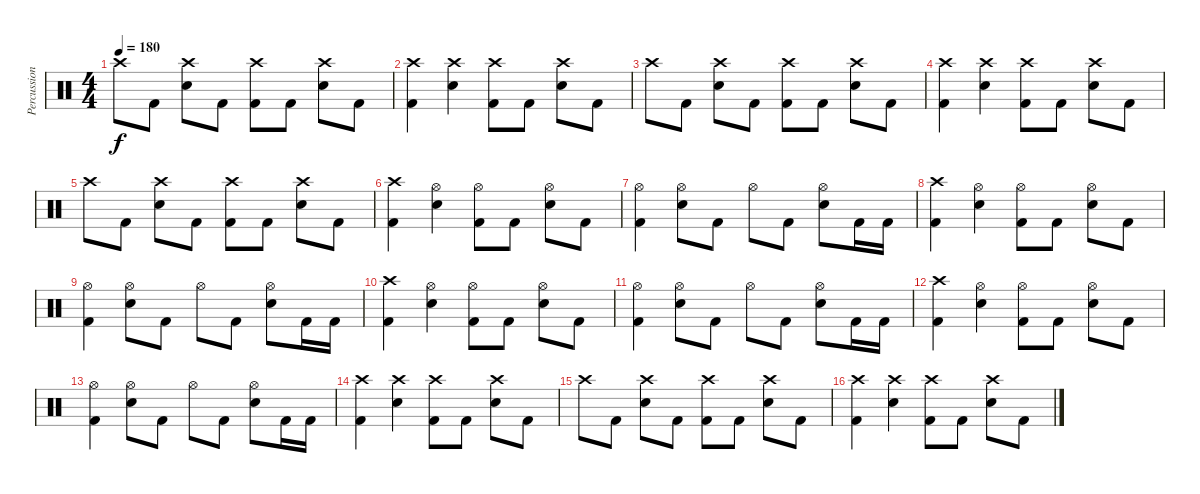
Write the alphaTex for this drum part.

\track ("Percussion" "Percussion") {instrument percussion}
\staff {score}
\articulation defaults
\ts (4 4)
\tempo 180
\clef neutral
\ks c "Crash high (hit)".8{dy f} "Kick (hit) 2".8
("Crash high (hit)" "Snare (hit) 2").8 "Kick (hit) 2".8 ("Crash high (hit)" "Kick (hit) 2").8 "Kick (hit) 2".8 ("Crash high (hit)" "Snare (hit) 2").8 "Kick (hit) 2".8 |
("Crash high (hit)" "Kick (hit) 2").4 ("Crash high (hit)" "Snare (hit) 2").4 ("Crash high (hit)" "Kick (hit) 2").8 "Kick (hit) 2".8 ("Crash high (hit)" "Snare (hit) 2").8 "Kick (hit) 2".8 |
"Crash high (hit)".8 "Kick (hit) 2".8 ("Crash high (hit)" "Snare (hit) 2").8 "Kick (hit) 2".8 ("Crash high (hit)" "Kick (hit) 2").8 "Kick (hit) 2".8 ("Crash high (hit)" "Snare (hit) 2").8 "Kick (hit) 2".8 |
("Crash high (hit)" "Kick (hit) 2").4 ("Crash high (hit)" "Snare (hit) 2").4 ("Crash high (hit)" "Kick (hit) 2").8 "Kick (hit) 2".8 ("Crash high (hit)" "Snare (hit) 2").8 "Kick (hit) 2".8 |
"Crash high (hit)".8 "Kick (hit) 2".8 ("Crash high (hit)" "Snare (hit) 2").8 "Kick (hit) 2".8 ("Crash high (hit)" "Kick (hit) 2").8 "Kick (hit) 2".8 ("Crash high (hit)" "Snare (hit) 2").8 "Kick (hit) 2".8 |
("Crash high (hit)" "Kick (hit) 2").4 ("Hi-Hat (open)" "Snare (hit) 2").4 ("Hi-Hat (open)" "Kick (hit) 2").8 "Kick (hit) 2".8 ("Hi-Hat (open)" "Snare (hit) 2").8 "Kick (hit) 2".8 |
("Hi-Hat (open)" "Kick (hit) 2").4 ("Hi-Hat (open)" "Snare (hit) 2").8 "Kick (hit) 2".8 "Hi-Hat (open)".8 "Kick (hit) 2".8 ("Hi-Hat (open)" "Snare (hit) 2").8 "Kick (hit) 2".16 "Kick (hit) 2".16 |
("Crash high (hit)" "Kick (hit) 2").4 ("Hi-Hat (open)" "Snare (hit) 2").4 ("Hi-Hat (open)" "Kick (hit) 2").8 "Kick (hit) 2".8 ("Hi-Hat (open)" "Snare (hit) 2").8 "Kick (hit) 2".8 |
("Hi-Hat (open)" "Kick (hit) 2").4 ("Hi-Hat (open)" "Snare (hit) 2").8 "Kick (hit) 2".8 "Hi-Hat (open)".8 "Kick (hit) 2".8 ("Hi-Hat (open)" "Snare (hit) 2").8 "Kick (hit) 2".16 "Kick (hit) 2".16 |
("Crash high (hit)" "Kick (hit) 2").4 ("Hi-Hat (open)" "Snare (hit) 2").4 ("Hi-Hat (open)" "Kick (hit) 2").8 "Kick (hit) 2".8 ("Hi-Hat (open)" "Snare (hit) 2").8 "Kick (hit) 2".8 |
("Hi-Hat (open)" "Kick (hit) 2").4 ("Hi-Hat (open)" "Snare (hit) 2").8 "Kick (hit) 2".8 "Hi-Hat (open)".8 "Kick (hit) 2".8 ("Hi-Hat (open)" "Snare (hit) 2").8 "Kick (hit) 2".16 "Kick (hit) 2".16 |
("Crash high (hit)" "Kick (hit) 2").4 ("Hi-Hat (open)" "Snare (hit) 2").4 ("Hi-Hat (open)" "Kick (hit) 2").8 "Kick (hit) 2".8 ("Hi-Hat (open)" "Snare (hit) 2").8 "Kick (hit) 2".8 |
("Hi-Hat (open)" "Kick (hit) 2").4 ("Hi-Hat (open)" "Snare (hit) 2").8 "Kick (hit) 2".8 "Hi-Hat (open)".8 "Kick (hit) 2".8 ("Hi-Hat (open)" "Snare (hit) 2").8 "Kick (hit) 2".16 "Kick (hit) 2".16 |
("Crash high (hit)" "Kick (hit) 2").4 ("Crash high (hit)" "Snare (hit) 2").4 ("Crash high (hit)" "Kick (hit) 2").8 "Kick (hit) 2".8 ("Crash high (hit)" "Snare (hit) 2").8 "Kick (hit) 2".8 |
"Crash high (hit)".8 "Kick (hit) 2".8 ("Crash high (hit)" "Snare (hit) 2").8 "Kick (hit) 2".8 ("Crash high (hit)" "Kick (hit) 2").8 "Kick (hit) 2".8 ("Crash high (hit)" "Snare (hit) 2").8 "Kick (hit) 2".8 |
("Crash high (hit)" "Kick (hit) 2").4 ("Crash high (hit)" "Snare (hit) 2").4 ("Crash high (hit)" "Kick (hit) 2").8 "Kick (hit) 2".8 ("Crash high (hit)" "Snare (hit) 2").8 "Kick (hit) 2".8
